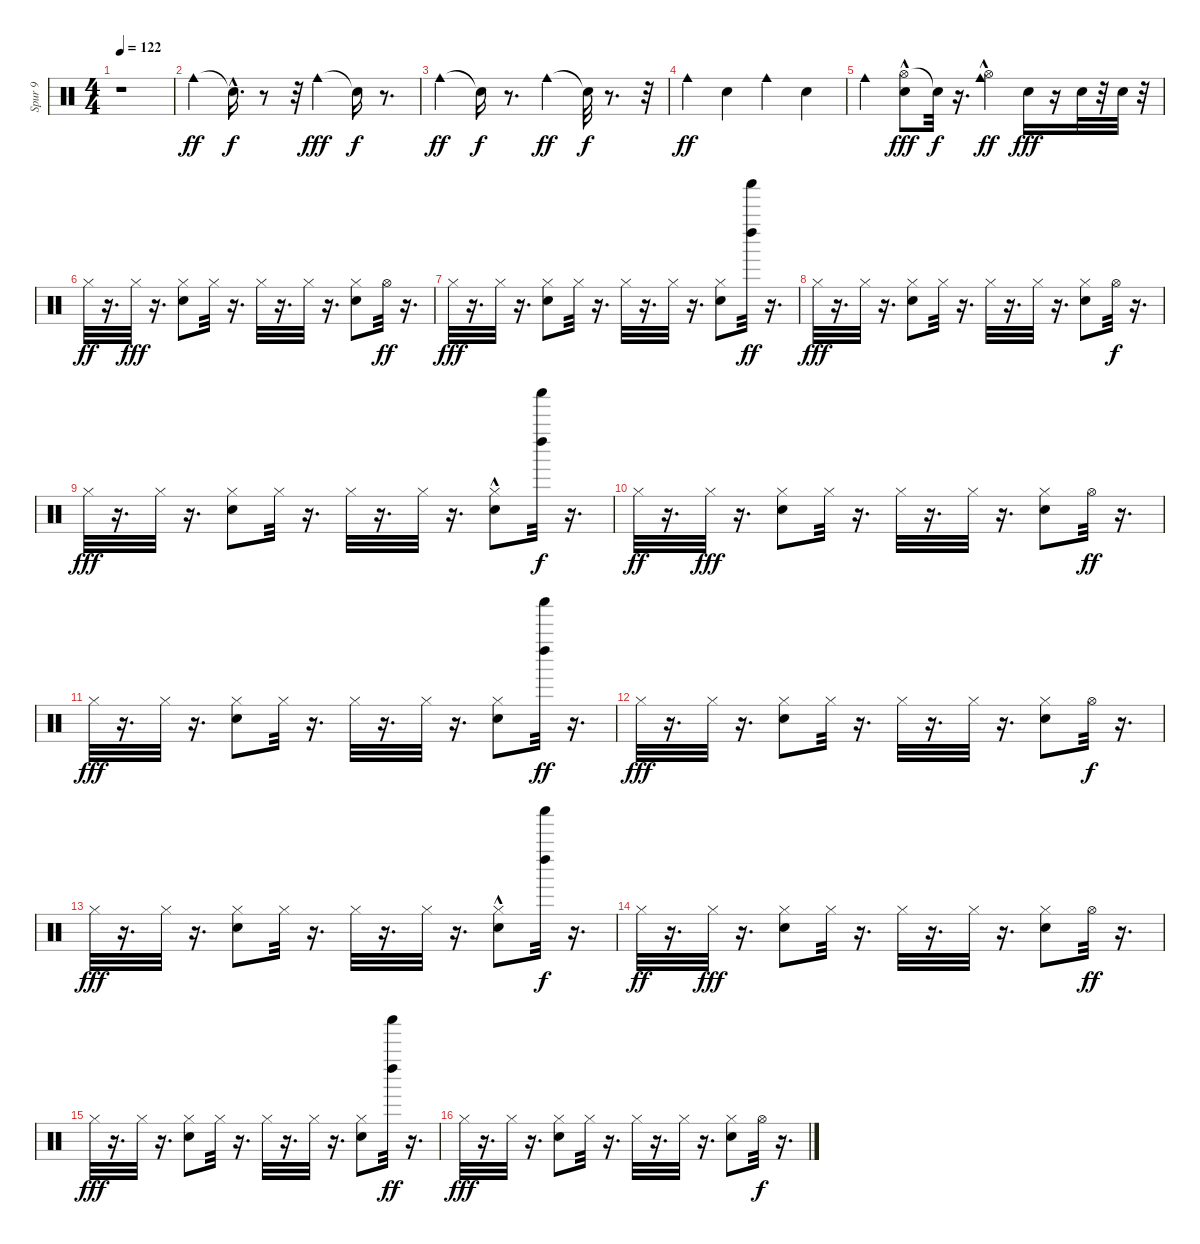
\track ("Spur 9" "Spur 9") {instrument percussion}
\staff {score}
\articulation defaults
\ts (4 4)
\tempo 122
\clef neutral
\ks c
r.1{dy ff} |
"Cowbell medium (hit)".4 "Snare (hit)"{hac t}.16{d dy f} r.8 r.32 "Cowbell medium (hit)".4{dy fff} "Snare (hit)"{t}.16{dy f} r.8{d} |
"Cowbell medium (hit)".4{dy ff} "Snare (hit)"{t}.16{dy f} r.8{d} "Cowbell medium (hit)".4{dy ff} "Snare (hit)"{t}.32{dy f} r.8{d} r.32 |
"Cowbell medium (hit)".4{dy ff} "Metronome (bell)".4 "Cowbell medium (hit)".4 "Metronome (bell)".4 |
"Cowbell medium (hit)".4 ("Hi-Hat (open)"{hac} "Metronome (bell)").8{dy fff} "Snare (hit)"{t}.32{dy f} r.16{d} ("Hi-Hat (open)"{hac} "Cowbell medium (hit)").4{dy ff} "Metronome (bell)".16{dy fff} r.16 "Metronome (bell)".32 r.32 "Metronome (bell)".32 r.32 |
"Hi-Hat (closed)".32{dy ff} r.16{d} "Hi-Hat (closed)".32{dy fff} r.16{d} ("Hi-Hat (closed)" "Metronome (bell)").8 "Hi-Hat (closed)".32 r.16{d} "Hi-Hat (closed)".32 r.16{d} "Hi-Hat (closed)".32 r.16{d} ("Hi-Hat (closed)" "Metronome (bell)").8 "Hi-Hat (open)".32{dy ff} r.16{d} |
"Hi-Hat (closed)".32{dy fff} r.16{d} "Hi-Hat (closed)".32 r.16{d} ("Hi-Hat (closed)" "Metronome (bell)").8 "Hi-Hat (closed)".32 r.16{d} "Hi-Hat (closed)".32 r.16{d} "Hi-Hat (closed)".32 r.16{d} ("Hi-Hat (closed)" "Metronome (bell)").8 ("Shaker (hit)" "Left Maraca (hit)").32{dy ff} r.16{d} |
"Hi-Hat (closed)".32{dy fff} r.16{d} "Hi-Hat (closed)".32 r.16{d} ("Hi-Hat (closed)" "Metronome (bell)").8 "Hi-Hat (closed)".32 r.16{d} "Hi-Hat (closed)".32 r.16{d} "Hi-Hat (closed)".32 r.16{d} ("Hi-Hat (closed)" "Metronome (bell)").8 "Hi-Hat (open)".32{dy f} r.16{d} |
"Hi-Hat (closed)".32{dy fff} r.16{d} "Hi-Hat (closed)".32 r.16{d} ("Hi-Hat (closed)" "Metronome (bell)").8 "Hi-Hat (closed)".32 r.16{d} "Hi-Hat (closed)".32 r.16{d} "Hi-Hat (closed)".32 r.16{d} ("Hi-Hat (closed)" "Metronome (bell)"{hac}).8 ("Shaker (hit)" "Left Maraca (hit)").32{dy f} r.16{d} |
"Hi-Hat (closed)".32{dy ff} r.16{d} "Hi-Hat (closed)".32{dy fff} r.16{d} ("Hi-Hat (closed)" "Metronome (bell)").8 "Hi-Hat (closed)".32 r.16{d} "Hi-Hat (closed)".32 r.16{d} "Hi-Hat (closed)".32 r.16{d} ("Hi-Hat (closed)" "Metronome (bell)").8 "Hi-Hat (open)".32{dy ff} r.16{d} |
"Hi-Hat (closed)".32{dy fff} r.16{d} "Hi-Hat (closed)".32 r.16{d} ("Hi-Hat (closed)" "Metronome (bell)").8 "Hi-Hat (closed)".32 r.16{d} "Hi-Hat (closed)".32 r.16{d} "Hi-Hat (closed)".32 r.16{d} ("Hi-Hat (closed)" "Metronome (bell)").8 ("Shaker (hit)" "Left Maraca (hit)").32{dy ff} r.16{d} |
"Hi-Hat (closed)".32{dy fff} r.16{d} "Hi-Hat (closed)".32 r.16{d} ("Hi-Hat (closed)" "Metronome (bell)").8 "Hi-Hat (closed)".32 r.16{d} "Hi-Hat (closed)".32 r.16{d} "Hi-Hat (closed)".32 r.16{d} ("Hi-Hat (closed)" "Metronome (bell)").8 "Hi-Hat (open)".32{dy f} r.16{d} |
"Hi-Hat (closed)".32{dy fff} r.16{d} "Hi-Hat (closed)".32 r.16{d} ("Hi-Hat (closed)" "Metronome (bell)").8 "Hi-Hat (closed)".32 r.16{d} "Hi-Hat (closed)".32 r.16{d} "Hi-Hat (closed)".32 r.16{d} ("Hi-Hat (closed)" "Metronome (bell)"{hac}).8 ("Shaker (hit)" "Left Maraca (hit)").32{dy f} r.16{d} |
"Hi-Hat (closed)".32{dy ff} r.16{d} "Hi-Hat (closed)".32{dy fff} r.16{d} ("Hi-Hat (closed)" "Metronome (bell)").8 "Hi-Hat (closed)".32 r.16{d} "Hi-Hat (closed)".32 r.16{d} "Hi-Hat (closed)".32 r.16{d} ("Hi-Hat (closed)" "Metronome (bell)").8 "Hi-Hat (open)".32{dy ff} r.16{d} |
"Hi-Hat (closed)".32{dy fff} r.16{d} "Hi-Hat (closed)".32 r.16{d} ("Hi-Hat (closed)" "Metronome (bell)").8 "Hi-Hat (closed)".32 r.16{d} "Hi-Hat (closed)".32 r.16{d} "Hi-Hat (closed)".32 r.16{d} ("Hi-Hat (closed)" "Metronome (bell)").8 ("Shaker (hit)" "Left Maraca (hit)").32{dy ff} r.16{d} |
"Hi-Hat (closed)".32{dy fff} r.16{d} "Hi-Hat (closed)".32 r.16{d} ("Hi-Hat (closed)" "Metronome (bell)").8 "Hi-Hat (closed)".32 r.16{d} "Hi-Hat (closed)".32 r.16{d} "Hi-Hat (closed)".32 r.16{d} ("Hi-Hat (closed)" "Metronome (bell)").8 "Hi-Hat (open)".32{dy f} r.16{d}
